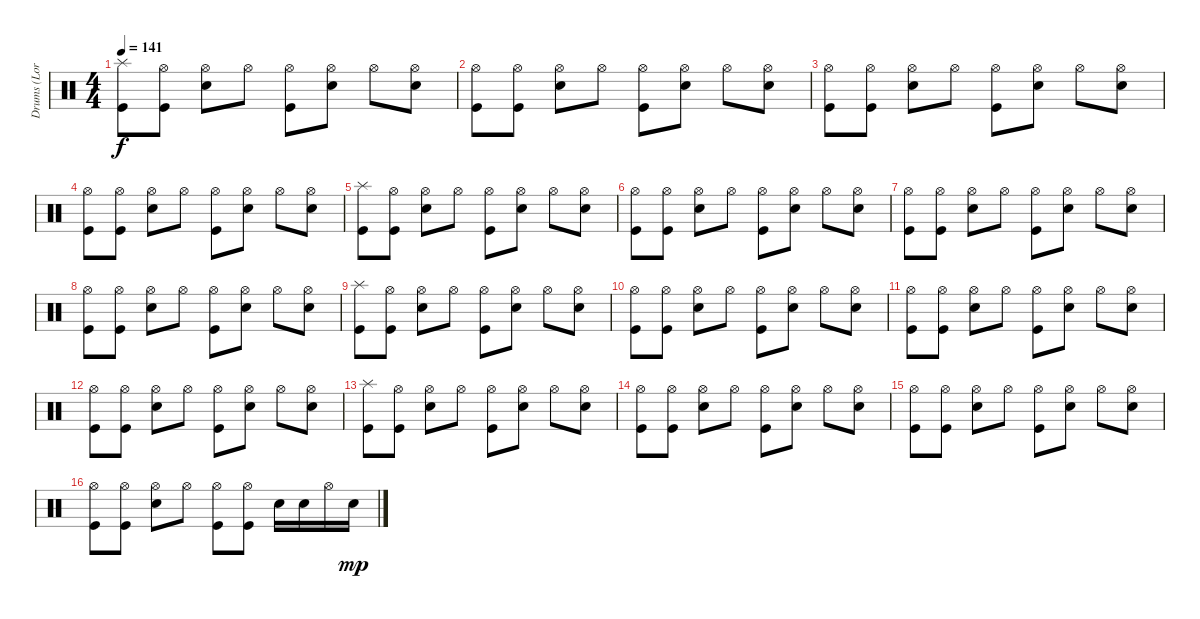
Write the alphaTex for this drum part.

\track ("Drums (Lora)" "Drums (Lor") {instrument percussion}
\staff {score}
\articulation defaults
\ts (4 4)
\tempo 141
\clef neutral
\ks c
("Splash (hit)" "Kick (hit)").8{dy f} ("Hi-Hat (open)" "Kick (hit)").8 ("Hi-Hat (open)" "Snare (hit) 2").8 "Hi-Hat (open)".8 ("Hi-Hat (open)" "Kick (hit)").8 ("Hi-Hat (open)" "Snare (hit) 2").8 "Hi-Hat (open)".8 ("Hi-Hat (open)" "Snare (hit) 2").8 |
("Hi-Hat (open)" "Kick (hit)").8 ("Hi-Hat (open)" "Kick (hit)").8 ("Hi-Hat (open)" "Snare (hit) 2").8 "Hi-Hat (open)".8 ("Hi-Hat (open)" "Kick (hit)").8 ("Hi-Hat (open)" "Snare (hit) 2").8 "Hi-Hat (open)".8 ("Hi-Hat (open)" "Snare (hit) 2").8 |
("Hi-Hat (open)" "Kick (hit)").8 ("Hi-Hat (open)" "Kick (hit)").8 ("Hi-Hat (open)" "Snare (hit) 2").8 "Hi-Hat (open)".8 ("Hi-Hat (open)" "Kick (hit)").8 ("Hi-Hat (open)" "Snare (hit) 2").8 "Hi-Hat (open)".8 ("Hi-Hat (open)" "Snare (hit) 2").8 |
("Hi-Hat (open)" "Kick (hit)").8 ("Hi-Hat (open)" "Kick (hit)").8 ("Hi-Hat (open)" "Snare (hit) 2").8 "Hi-Hat (open)".8 ("Hi-Hat (open)" "Kick (hit)").8 ("Hi-Hat (open)" "Snare (hit) 2").8 "Hi-Hat (open)".8 ("Hi-Hat (open)" "Snare (hit) 2").8 |
("Splash (hit)" "Kick (hit)").8 ("Hi-Hat (open)" "Kick (hit)").8 ("Hi-Hat (open)" "Snare (hit) 2").8 "Hi-Hat (open)".8 ("Hi-Hat (open)" "Kick (hit)").8 ("Hi-Hat (open)" "Snare (hit) 2").8 "Hi-Hat (open)".8 ("Hi-Hat (open)" "Snare (hit) 2").8 |
("Hi-Hat (open)" "Kick (hit)").8 ("Hi-Hat (open)" "Kick (hit)").8 ("Hi-Hat (open)" "Snare (hit) 2").8 "Hi-Hat (open)".8 ("Hi-Hat (open)" "Kick (hit)").8 ("Hi-Hat (open)" "Snare (hit) 2").8 "Hi-Hat (open)".8 ("Hi-Hat (open)" "Snare (hit) 2").8 |
("Hi-Hat (open)" "Kick (hit)").8 ("Hi-Hat (open)" "Kick (hit)").8 ("Hi-Hat (open)" "Snare (hit) 2").8 "Hi-Hat (open)".8 ("Hi-Hat (open)" "Kick (hit)").8 ("Hi-Hat (open)" "Snare (hit) 2").8 "Hi-Hat (open)".8 ("Hi-Hat (open)" "Snare (hit) 2").8 |
("Hi-Hat (open)" "Kick (hit)").8 ("Hi-Hat (open)" "Kick (hit)").8 ("Hi-Hat (open)" "Snare (hit) 2").8 "Hi-Hat (open)".8 ("Hi-Hat (open)" "Kick (hit)").8 ("Hi-Hat (open)" "Snare (hit) 2").8 "Hi-Hat (open)".8 ("Hi-Hat (open)" "Snare (hit) 2").8 |
("Splash (hit)" "Kick (hit)").8 ("Hi-Hat (open)" "Kick (hit)").8 ("Hi-Hat (open)" "Snare (hit) 2").8 "Hi-Hat (open)".8 ("Hi-Hat (open)" "Kick (hit)").8 ("Hi-Hat (open)" "Snare (hit) 2").8 "Hi-Hat (open)".8 ("Hi-Hat (open)" "Snare (hit) 2").8 |
("Hi-Hat (open)" "Kick (hit)").8 ("Hi-Hat (open)" "Kick (hit)").8 ("Hi-Hat (open)" "Snare (hit) 2").8 "Hi-Hat (open)".8 ("Hi-Hat (open)" "Kick (hit)").8 ("Hi-Hat (open)" "Snare (hit) 2").8 "Hi-Hat (open)".8 ("Hi-Hat (open)" "Snare (hit) 2").8 |
("Hi-Hat (open)" "Kick (hit)").8 ("Hi-Hat (open)" "Kick (hit)").8 ("Hi-Hat (open)" "Snare (hit) 2").8 "Hi-Hat (open)".8 ("Hi-Hat (open)" "Kick (hit)").8 ("Hi-Hat (open)" "Snare (hit) 2").8 "Hi-Hat (open)".8 ("Hi-Hat (open)" "Snare (hit) 2").8 |
("Hi-Hat (open)" "Kick (hit)").8 ("Hi-Hat (open)" "Kick (hit)").8 ("Hi-Hat (open)" "Snare (hit) 2").8 "Hi-Hat (open)".8 ("Hi-Hat (open)" "Kick (hit)").8 ("Hi-Hat (open)" "Snare (hit) 2").8 "Hi-Hat (open)".8 ("Hi-Hat (open)" "Snare (hit) 2").8 |
("Splash (hit)" "Kick (hit)").8 ("Hi-Hat (open)" "Kick (hit)").8 ("Hi-Hat (open)" "Snare (hit) 2").8 "Hi-Hat (open)".8 ("Hi-Hat (open)" "Kick (hit)").8 ("Hi-Hat (open)" "Snare (hit) 2").8 "Hi-Hat (open)".8 ("Hi-Hat (open)" "Snare (hit) 2").8 |
("Hi-Hat (open)" "Kick (hit)").8 ("Hi-Hat (open)" "Kick (hit)").8 ("Hi-Hat (open)" "Snare (hit) 2").8 "Hi-Hat (open)".8 ("Hi-Hat (open)" "Kick (hit)").8 ("Hi-Hat (open)" "Snare (hit) 2").8 "Hi-Hat (open)".8 ("Hi-Hat (open)" "Snare (hit) 2").8 |
("Hi-Hat (open)" "Kick (hit)").8 ("Hi-Hat (open)" "Kick (hit)").8 ("Hi-Hat (open)" "Snare (hit) 2").8 "Hi-Hat (open)".8 ("Hi-Hat (open)" "Kick (hit)").8 ("Hi-Hat (open)" "Snare (hit) 2").8 "Hi-Hat (open)".8 ("Hi-Hat (open)" "Snare (hit) 2").8 |
("Hi-Hat (open)" "Kick (hit)").8 ("Hi-Hat (open)" "Kick (hit)").8 ("Hi-Hat (open)" "Snare (hit) 2").8 "Hi-Hat (open)".8 ("Hi-Hat (open)" "Kick (hit)").8 ("Hi-Hat (open)" "Kick (hit)").8 "Snare (hit) 2".16 "Snare (hit) 2".16 "Hi-Hat (open)".16 "Snare (hit) 2".16{dy mp}
